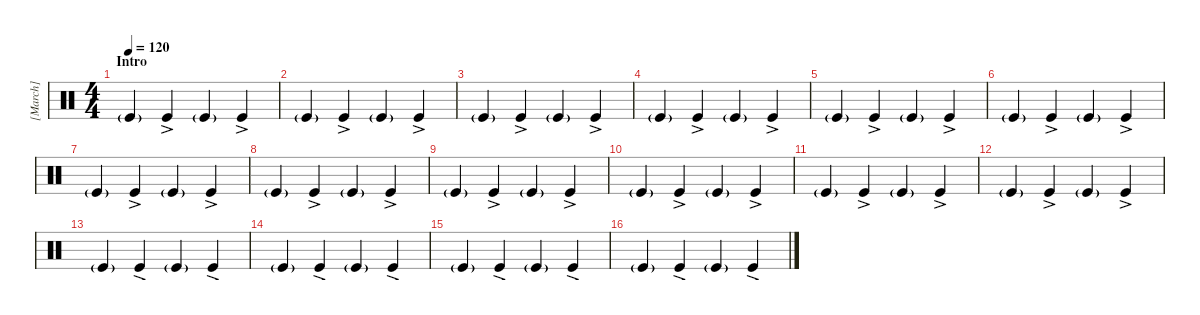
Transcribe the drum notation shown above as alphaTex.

\hideDynamics
\bracketExtendMode groupsimilarinstruments
\firstSystemTrackNameMode fullname
\otherSystemsTrackNameMode fullname
\otherSystemsTrackNameOrientation horizontal
\track ("[March]" "H-Clap") {instrument percussion}
\staff {score}
\articulation defaults
\ts (4 4)
\beaming (8 2 2 2 2)
\section ("" "Intro")
\tempo 120
\clef neutral
\scale
0.505495
\ks c "Kick (hit)"{g}.4{dy mf} "Kick (hit)"{ac}.4 "Kick (hit)"{g}.4 "Kick (hit)"{ac}.4
|
\scale
0.247253 "Kick (hit)"{g}.4 "Kick (hit)"{ac}.4 "Kick (hit)"{g}.4 "Kick (hit)"{ac}.4 |
\scale
0.247253 "Kick (hit)"{g}.4 "Kick (hit)"{ac}.4 "Kick (hit)"{g}.4 "Kick (hit)"{ac}.4 |
\scale
0.333333 "Kick (hit)"{g}.4 "Kick (hit)"{ac}.4 "Kick (hit)"{g}.4 "Kick (hit)"{ac}.4 |
\scale
0.333333 "Kick (hit)"{g}.4 "Kick (hit)"{ac}.4 "Kick (hit)"{g}.4 "Kick (hit)"{ac}.4 |
\scale
0.333333 "Kick (hit)"{g}.4 "Kick (hit)"{ac}.4 "Kick (hit)"{g}.4 "Kick (hit)"{ac}.4 |
\scale
0.3 "Kick (hit)"{g}.4 "Kick (hit)"{ac}.4 "Kick (hit)"{g}.4 "Kick (hit)"{ac}.4 |
\scale
0.333333 "Kick (hit)"{g}.4 "Kick (hit)"{ac}.4 "Kick (hit)"{g}.4 "Kick (hit)"{ac}.4 |
"Kick (hit)"{g}.4 "Kick (hit)"{ac}.4 "Kick (hit)"{g}.4 "Kick (hit)"{ac}.4 |
"Kick (hit)"{g}.4 "Kick (hit)"{ac}.4 "Kick (hit)"{g}.4 "Kick (hit)"{ac}.4 |
"Kick (hit)"{g}.4 "Kick (hit)"{ac}.4 "Kick (hit)"{g}.4 "Kick (hit)"{ac}.4 |
"Kick (hit)"{g}.4 "Kick (hit)"{ac}.4 "Kick (hit)"{g}.4 "Kick (hit)"{ac}.4 |
"Kick (hit)"{g}.4 "Kick (hit)"{ac}.4 "Kick (hit)"{g}.4 "Kick (hit)"{ac}.4 |
"Kick (hit)"{g}.4 "Kick (hit)"{ac}.4 "Kick (hit)"{g}.4 "Kick (hit)"{ac}.4 |
"Kick (hit)"{g}.4 "Kick (hit)"{ac}.4 "Kick (hit)"{g}.4 "Kick (hit)"{ac}.4 |
"Kick (hit)"{g}.4 "Kick (hit)"{ac}.4 "Kick (hit)"{g}.4 "Kick (hit)"{ac}.4
